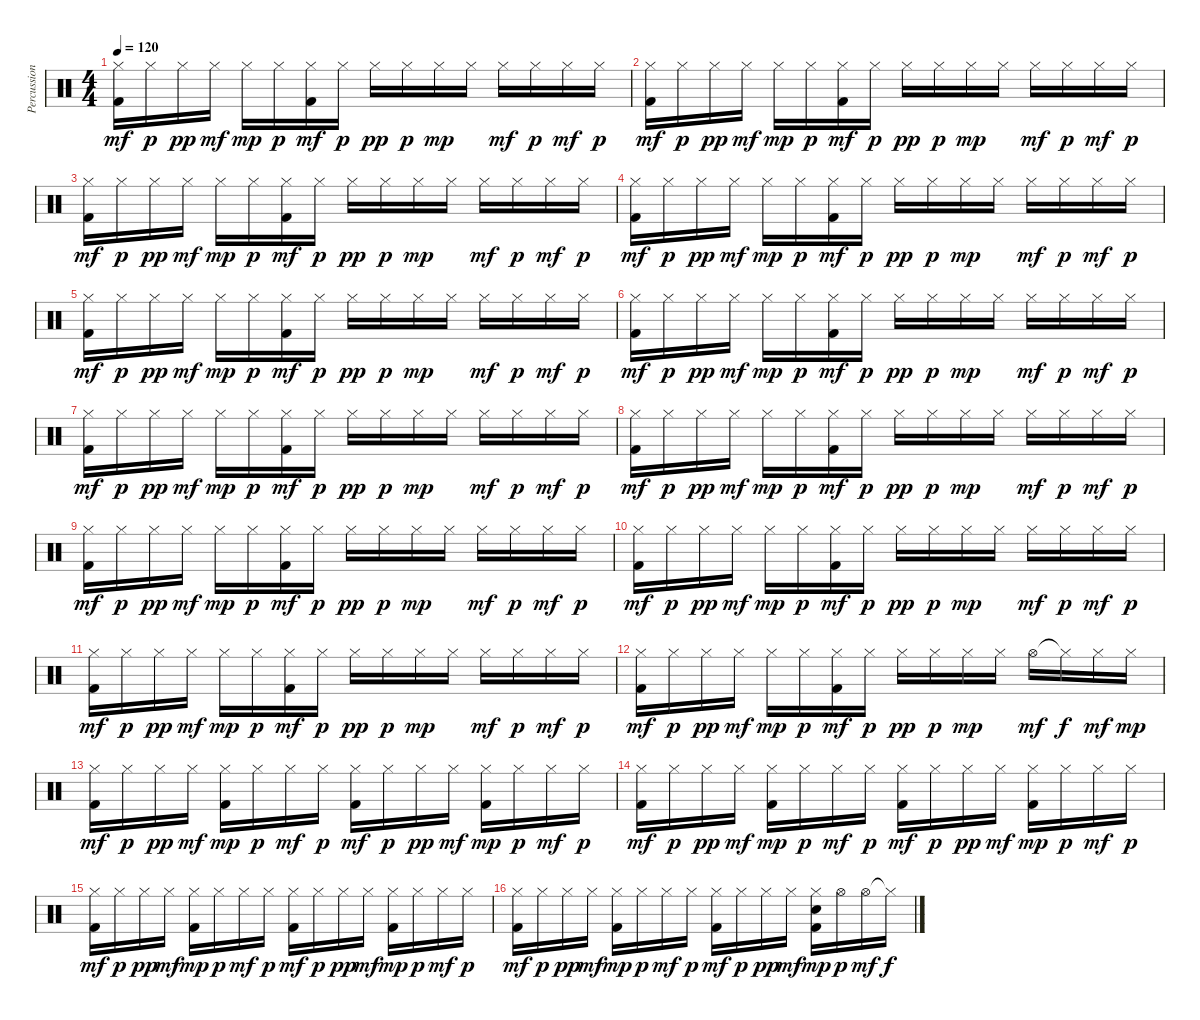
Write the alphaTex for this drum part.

\track ("Percussion" "Percussion") {instrument percussion}
\staff {score}
\articulation defaults
\ts (4 4)
\tempo 120
\clef neutral
\ks c
("Hi-Hat (closed)" "Kick (hit) 2").16{dy mf} "Hi-Hat (closed)".16{dy p} "Hi-Hat (closed)".16{dy pp} "Hi-Hat (closed)".16{dy mf} "Hi-Hat (closed)".16{dy mp} "Hi-Hat (closed)".16{dy p} ("Hi-Hat (closed)" "Kick (hit) 2").16{dy mf} "Hi-Hat (closed)".16{dy p} "Hi-Hat (closed)".16{dy pp} "Hi-Hat (closed)".16{dy p} "Hi-Hat (closed)".16{dy mp} "Hi-Hat (closed)".16 "Hi-Hat (closed)".16{dy mf} "Hi-Hat (closed)".16{dy p} "Hi-Hat (closed)".16{dy mf} "Hi-Hat (closed)".16{dy p} |
("Hi-Hat (closed)" "Kick (hit) 2").16{dy mf} "Hi-Hat (closed)".16{dy p} "Hi-Hat (closed)".16{dy pp} "Hi-Hat (closed)".16{dy mf} "Hi-Hat (closed)".16{dy mp} "Hi-Hat (closed)".16{dy p} ("Hi-Hat (closed)" "Kick (hit) 2").16{dy mf} "Hi-Hat (closed)".16{dy p} "Hi-Hat (closed)".16{dy pp} "Hi-Hat (closed)".16{dy p} "Hi-Hat (closed)".16{dy mp} "Hi-Hat (closed)".16 "Hi-Hat (closed)".16{dy mf} "Hi-Hat (closed)".16{dy p} "Hi-Hat (closed)".16{dy mf} "Hi-Hat (closed)".16{dy p} |
("Hi-Hat (closed)" "Kick (hit) 2").16{dy mf} "Hi-Hat (closed)".16{dy p} "Hi-Hat (closed)".16{dy pp} "Hi-Hat (closed)".16{dy mf} "Hi-Hat (closed)".16{dy mp} "Hi-Hat (closed)".16{dy p} ("Hi-Hat (closed)" "Kick (hit) 2").16{dy mf} "Hi-Hat (closed)".16{dy p} "Hi-Hat (closed)".16{dy pp} "Hi-Hat (closed)".16{dy p} "Hi-Hat (closed)".16{dy mp} "Hi-Hat (closed)".16 "Hi-Hat (closed)".16{dy mf} "Hi-Hat (closed)".16{dy p} "Hi-Hat (closed)".16{dy mf} "Hi-Hat (closed)".16{dy p} |
("Hi-Hat (closed)" "Kick (hit) 2").16{dy mf} "Hi-Hat (closed)".16{dy p} "Hi-Hat (closed)".16{dy pp} "Hi-Hat (closed)".16{dy mf} "Hi-Hat (closed)".16{dy mp} "Hi-Hat (closed)".16{dy p} ("Hi-Hat (closed)" "Kick (hit) 2").16{dy mf} "Hi-Hat (closed)".16{dy p} "Hi-Hat (closed)".16{dy pp} "Hi-Hat (closed)".16{dy p} "Hi-Hat (closed)".16{dy mp} "Hi-Hat (closed)".16 "Hi-Hat (closed)".16{dy mf} "Hi-Hat (closed)".16{dy p} "Hi-Hat (closed)".16{dy mf} "Hi-Hat (closed)".16{dy p} |
("Hi-Hat (closed)" "Kick (hit) 2").16{dy mf} "Hi-Hat (closed)".16{dy p} "Hi-Hat (closed)".16{dy pp} "Hi-Hat (closed)".16{dy mf} "Hi-Hat (closed)".16{dy mp} "Hi-Hat (closed)".16{dy p} ("Hi-Hat (closed)" "Kick (hit) 2").16{dy mf} "Hi-Hat (closed)".16{dy p} "Hi-Hat (closed)".16{dy pp} "Hi-Hat (closed)".16{dy p} "Hi-Hat (closed)".16{dy mp} "Hi-Hat (closed)".16 "Hi-Hat (closed)".16{dy mf} "Hi-Hat (closed)".16{dy p} "Hi-Hat (closed)".16{dy mf} "Hi-Hat (closed)".16{dy p} |
("Hi-Hat (closed)" "Kick (hit) 2").16{dy mf} "Hi-Hat (closed)".16{dy p} "Hi-Hat (closed)".16{dy pp} "Hi-Hat (closed)".16{dy mf} "Hi-Hat (closed)".16{dy mp} "Hi-Hat (closed)".16{dy p} ("Hi-Hat (closed)" "Kick (hit) 2").16{dy mf} "Hi-Hat (closed)".16{dy p} "Hi-Hat (closed)".16{dy pp} "Hi-Hat (closed)".16{dy p} "Hi-Hat (closed)".16{dy mp} "Hi-Hat (closed)".16 "Hi-Hat (closed)".16{dy mf} "Hi-Hat (closed)".16{dy p} "Hi-Hat (closed)".16{dy mf} "Hi-Hat (closed)".16{dy p} |
("Hi-Hat (closed)" "Kick (hit) 2").16{dy mf} "Hi-Hat (closed)".16{dy p} "Hi-Hat (closed)".16{dy pp} "Hi-Hat (closed)".16{dy mf} "Hi-Hat (closed)".16{dy mp} "Hi-Hat (closed)".16{dy p} ("Hi-Hat (closed)" "Kick (hit) 2").16{dy mf} "Hi-Hat (closed)".16{dy p} "Hi-Hat (closed)".16{dy pp} "Hi-Hat (closed)".16{dy p} "Hi-Hat (closed)".16{dy mp} "Hi-Hat (closed)".16 "Hi-Hat (closed)".16{dy mf} "Hi-Hat (closed)".16{dy p} "Hi-Hat (closed)".16{dy mf} "Hi-Hat (closed)".16{dy p} |
("Hi-Hat (closed)" "Kick (hit) 2").16{dy mf} "Hi-Hat (closed)".16{dy p} "Hi-Hat (closed)".16{dy pp} "Hi-Hat (closed)".16{dy mf} "Hi-Hat (closed)".16{dy mp} "Hi-Hat (closed)".16{dy p} ("Hi-Hat (closed)" "Kick (hit) 2").16{dy mf} "Hi-Hat (closed)".16{dy p} "Hi-Hat (closed)".16{dy pp} "Hi-Hat (closed)".16{dy p} "Hi-Hat (closed)".16{dy mp} "Hi-Hat (closed)".16 "Hi-Hat (closed)".16{dy mf} "Hi-Hat (closed)".16{dy p} "Hi-Hat (closed)".16{dy mf} "Hi-Hat (closed)".16{dy p} |
("Hi-Hat (closed)" "Kick (hit) 2").16{dy mf} "Hi-Hat (closed)".16{dy p} "Hi-Hat (closed)".16{dy pp} "Hi-Hat (closed)".16{dy mf} "Hi-Hat (closed)".16{dy mp} "Hi-Hat (closed)".16{dy p} ("Hi-Hat (closed)" "Kick (hit) 2").16{dy mf} "Hi-Hat (closed)".16{dy p} "Hi-Hat (closed)".16{dy pp} "Hi-Hat (closed)".16{dy p} "Hi-Hat (closed)".16{dy mp} "Hi-Hat (closed)".16 "Hi-Hat (closed)".16{dy mf} "Hi-Hat (closed)".16{dy p} "Hi-Hat (closed)".16{dy mf} "Hi-Hat (closed)".16{dy p} |
("Hi-Hat (closed)" "Kick (hit) 2").16{dy mf} "Hi-Hat (closed)".16{dy p} "Hi-Hat (closed)".16{dy pp} "Hi-Hat (closed)".16{dy mf} "Hi-Hat (closed)".16{dy mp} "Hi-Hat (closed)".16{dy p} ("Hi-Hat (closed)" "Kick (hit) 2").16{dy mf} "Hi-Hat (closed)".16{dy p} "Hi-Hat (closed)".16{dy pp} "Hi-Hat (closed)".16{dy p} "Hi-Hat (closed)".16{dy mp} "Hi-Hat (closed)".16 "Hi-Hat (closed)".16{dy mf} "Hi-Hat (closed)".16{dy p} "Hi-Hat (closed)".16{dy mf} "Hi-Hat (closed)".16{dy p} |
("Hi-Hat (closed)" "Kick (hit) 2").16{dy mf} "Hi-Hat (closed)".16{dy p} "Hi-Hat (closed)".16{dy pp} "Hi-Hat (closed)".16{dy mf} "Hi-Hat (closed)".16{dy mp} "Hi-Hat (closed)".16{dy p} ("Hi-Hat (closed)" "Kick (hit) 2").16{dy mf} "Hi-Hat (closed)".16{dy p} "Hi-Hat (closed)".16{dy pp} "Hi-Hat (closed)".16{dy p} "Hi-Hat (closed)".16{dy mp} "Hi-Hat (closed)".16 "Hi-Hat (closed)".16{dy mf} "Hi-Hat (closed)".16{dy p} "Hi-Hat (closed)".16{dy mf} "Hi-Hat (closed)".16{dy p} |
("Hi-Hat (closed)" "Kick (hit) 2").16{dy mf} "Hi-Hat (closed)".16{dy p} "Hi-Hat (closed)".16{dy pp} "Hi-Hat (closed)".16{dy mf} "Hi-Hat (closed)".16{dy mp} "Hi-Hat (closed)".16{dy p} ("Hi-Hat (closed)" "Kick (hit) 2").16{dy mf} "Hi-Hat (closed)".16{dy p} "Hi-Hat (closed)".16{dy pp} "Hi-Hat (closed)".16{dy p} "Hi-Hat (closed)".16{dy mp} "Hi-Hat (closed)".16 "Hi-Hat (open)".16{dy mf} "Hi-Hat (closed)"{t}.16{dy f} "Hi-Hat (closed)".16{dy mf} "Hi-Hat (closed)".16{dy mp} |
("Hi-Hat (closed)" "Kick (hit) 2").16{dy mf} "Hi-Hat (closed)".16{dy p} "Hi-Hat (closed)".16{dy pp} "Hi-Hat (closed)".16{dy mf} ("Hi-Hat (closed)" "Kick (hit) 2").16{dy mp} "Hi-Hat (closed)".16{dy p} "Hi-Hat (closed)".16{dy mf} "Hi-Hat (closed)".16{dy p} ("Hi-Hat (closed)" "Kick (hit) 2").16{dy mf} "Hi-Hat (closed)".16{dy p} "Hi-Hat (closed)".16{dy pp} "Hi-Hat (closed)".16{dy mf} ("Hi-Hat (closed)" "Kick (hit) 2").16{dy mp} "Hi-Hat (closed)".16{dy p} "Hi-Hat (closed)".16{dy mf} "Hi-Hat (closed)".16{dy p} |
("Hi-Hat (closed)" "Kick (hit) 2").16{dy mf} "Hi-Hat (closed)".16{dy p} "Hi-Hat (closed)".16{dy pp} "Hi-Hat (closed)".16{dy mf} ("Hi-Hat (closed)" "Kick (hit) 2").16{dy mp} "Hi-Hat (closed)".16{dy p} "Hi-Hat (closed)".16{dy mf} "Hi-Hat (closed)".16{dy p} ("Hi-Hat (closed)" "Kick (hit) 2").16{dy mf} "Hi-Hat (closed)".16{dy p} "Hi-Hat (closed)".16{dy pp} "Hi-Hat (closed)".16{dy mf} ("Hi-Hat (closed)" "Kick (hit) 2").16{dy mp} "Hi-Hat (closed)".16{dy p} "Hi-Hat (closed)".16{dy mf} "Hi-Hat (closed)".16{dy p} |
("Hi-Hat (closed)" "Kick (hit) 2").16{dy mf} "Hi-Hat (closed)".16{dy p} "Hi-Hat (closed)".16{dy pp} "Hi-Hat (closed)".16{dy mf} ("Hi-Hat (closed)" "Kick (hit) 2").16{dy mp} "Hi-Hat (closed)".16{dy p} "Hi-Hat (closed)".16{dy mf} "Hi-Hat (closed)".16{dy p} ("Hi-Hat (closed)" "Kick (hit) 2").16{dy mf} "Hi-Hat (closed)".16{dy p} "Hi-Hat (closed)".16{dy pp} "Hi-Hat (closed)".16{dy mf} ("Hi-Hat (closed)" "Kick (hit) 2").16{dy mp} "Hi-Hat (closed)".16{dy p} "Hi-Hat (closed)".16{dy mf} "Hi-Hat (closed)".16{dy p} |
("Hi-Hat (closed)" "Kick (hit) 2").16{dy mf} "Hi-Hat (closed)".16{dy p} "Hi-Hat (closed)".16{dy pp} "Hi-Hat (closed)".16{dy mf} ("Hi-Hat (closed)" "Kick (hit) 2").16{dy mp} "Hi-Hat (closed)".16{dy p} "Hi-Hat (closed)".16{dy mf} "Hi-Hat (closed)".16{dy p} ("Hi-Hat (closed)" "Kick (hit) 2").16{dy mf} "Hi-Hat (closed)".16{dy p} "Hi-Hat (closed)".16{dy pp} "Hi-Hat (closed)".16{dy mf} ("Hi-Hat (closed)" "Electric Snare (hit)" "Kick (hit) 2").16{dy mp} "Hi-Hat (open)".16{dy p} "Hi-Hat (open)".16{dy mf} "Hi-Hat (closed)"{t}.16{dy f}
